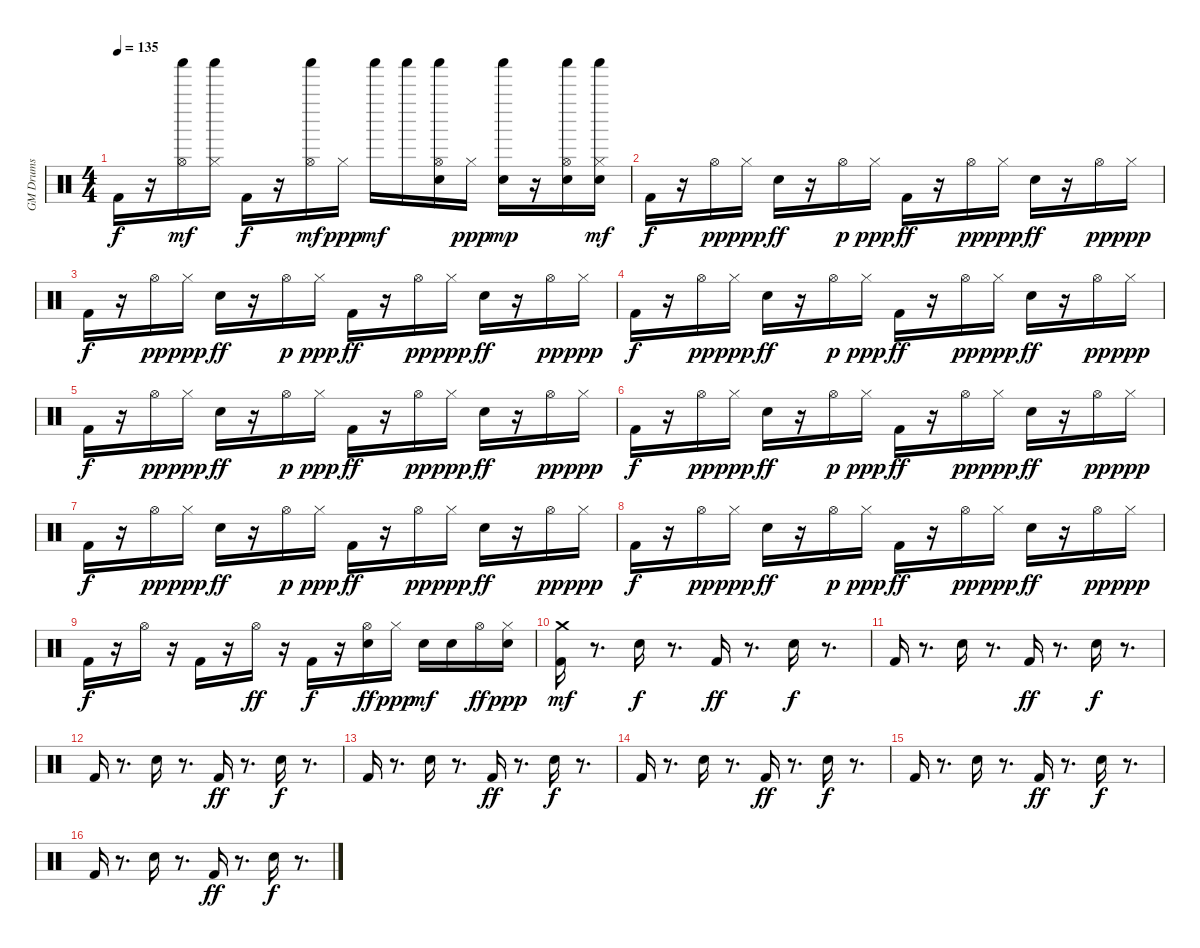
\track ("GM Drums" "GM Drums") {instrument percussion}
\staff {score}
\articulation defaults
\ts (4 4)
\tempo 135
\clef neutral
\ks c "Kick (hit) 2".16{dy f}
r.16 ("Hi-Hat (open)" "Shaker (hit)").16{dy mf} ("Hi-Hat (closed)" "Shaker (hit)").16 "Kick (hit) 2".16{dy f} r.16 ("Hi-Hat (open)" "Shaker (hit)").16{dy mf} "Hi-Hat (closed)".16{dy ppp} "Shaker (hit)".16{dy mf} "Shaker (hit)".16 ("Electric Snare (hit)" "Hi-Hat (open)" "Shaker (hit)").16 "Hi-Hat (closed)".16{dy ppp} ("Electric Snare (hit)" "Shaker (hit)").16{dy mp} r.16 ("Electric Snare (hit)" "Hi-Hat (open)" "Shaker (hit)").16 ("Electric Snare (hit)" "Hi-Hat (closed)" "Shaker (hit)").16{dy mf} |
"Kick (hit) 2".16{dy f} r.16 "Hi-Hat (open)".16{dy pp} "Hi-Hat (closed)".16{dy ppp} "Snare (hit) 2".16{dy ff} r.16 "Hi-Hat (open)".16{dy p} "Hi-Hat (closed)".16{dy ppp} "Kick (hit) 2".16{dy ff} r.16 "Hi-Hat (open)".16{dy pp} "Hi-Hat (closed)".16{dy ppp} "Snare (hit) 2".16{dy ff} r.16 "Hi-Hat (open)".16{dy pp} "Hi-Hat (closed)".16{dy ppp} |
"Kick (hit) 2".16{dy f} r.16 "Hi-Hat (open)".16{dy pp} "Hi-Hat (closed)".16{dy ppp} "Snare (hit) 2".16{dy ff} r.16 "Hi-Hat (open)".16{dy p} "Hi-Hat (closed)".16{dy ppp} "Kick (hit) 2".16{dy ff} r.16 "Hi-Hat (open)".16{dy pp} "Hi-Hat (closed)".16{dy ppp} "Snare (hit) 2".16{dy ff} r.16 "Hi-Hat (open)".16{dy pp} "Hi-Hat (closed)".16{dy ppp} |
"Kick (hit) 2".16{dy f} r.16 "Hi-Hat (open)".16{dy pp} "Hi-Hat (closed)".16{dy ppp} "Snare (hit) 2".16{dy ff} r.16 "Hi-Hat (open)".16{dy p} "Hi-Hat (closed)".16{dy ppp} "Kick (hit) 2".16{dy ff} r.16 "Hi-Hat (open)".16{dy pp} "Hi-Hat (closed)".16{dy ppp} "Snare (hit) 2".16{dy ff} r.16 "Hi-Hat (open)".16{dy pp} "Hi-Hat (closed)".16{dy ppp} |
"Kick (hit) 2".16{dy f} r.16 "Hi-Hat (open)".16{dy pp} "Hi-Hat (closed)".16{dy ppp} "Snare (hit) 2".16{dy ff} r.16 "Hi-Hat (open)".16{dy p} "Hi-Hat (closed)".16{dy ppp} "Kick (hit) 2".16{dy ff} r.16 "Hi-Hat (open)".16{dy pp} "Hi-Hat (closed)".16{dy ppp} "Snare (hit) 2".16{dy ff} r.16 "Hi-Hat (open)".16{dy pp} "Hi-Hat (closed)".16{dy ppp} |
"Kick (hit) 2".16{dy f} r.16 "Hi-Hat (open)".16{dy pp} "Hi-Hat (closed)".16{dy ppp} "Snare (hit) 2".16{dy ff} r.16 "Hi-Hat (open)".16{dy p} "Hi-Hat (closed)".16{dy ppp} "Kick (hit) 2".16{dy ff} r.16 "Hi-Hat (open)".16{dy pp} "Hi-Hat (closed)".16{dy ppp} "Snare (hit) 2".16{dy ff} r.16 "Hi-Hat (open)".16{dy pp} "Hi-Hat (closed)".16{dy ppp} |
"Kick (hit) 2".16{dy f} r.16 "Hi-Hat (open)".16{dy pp} "Hi-Hat (closed)".16{dy ppp} "Snare (hit) 2".16{dy ff} r.16 "Hi-Hat (open)".16{dy p} "Hi-Hat (closed)".16{dy ppp} "Kick (hit) 2".16{dy ff} r.16 "Hi-Hat (open)".16{dy pp} "Hi-Hat (closed)".16{dy ppp} "Snare (hit) 2".16{dy ff} r.16 "Hi-Hat (open)".16{dy pp} "Hi-Hat (closed)".16{dy ppp} |
"Kick (hit) 2".16{dy f} r.16 "Hi-Hat (open)".16{dy pp} "Hi-Hat (closed)".16{dy ppp} "Snare (hit) 2".16{dy ff} r.16 "Hi-Hat (open)".16{dy p} "Hi-Hat (closed)".16{dy ppp} "Kick (hit) 2".16{dy ff} r.16 "Hi-Hat (open)".16{dy pp} "Hi-Hat (closed)".16{dy ppp} "Snare (hit) 2".16{dy ff} r.16 "Hi-Hat (open)".16{dy pp} "Hi-Hat (closed)".16{dy ppp} |
"Kick (hit) 2".16{dy f} r.16 "Hi-Hat (open)".16 r.16 "Kick (hit) 2".16 r.16 "Hi-Hat (open)".16{dy ff} r.16 "Kick (hit) 2".16{dy f} r.16 ("Electric Snare (hit)" "Hi-Hat (open)").16{dy ff} "Hi-Hat (closed)".16{dy ppp} "Electric Snare (hit)".16{dy mf} "Electric Snare (hit)".16 "Hi-Hat (open)".16{dy ff} ("Electric Snare (hit)" "Hi-Hat (closed)").16{dy ppp} |
("Kick (hit) 2" "Crash medium (hit)").16{dy mf} r.8{d} "Snare (hit) 2".16{dy f} r.8{d} "Kick (hit) 2".16{dy ff} r.8{d} "Snare (hit) 2".16{dy f} r.8{d} |
"Kick (hit) 2".16 r.8{d} "Snare (hit) 2".16 r.8{d} "Kick (hit) 2".16{dy ff} r.8{d} "Snare (hit) 2".16{dy f} r.8{d} |
"Kick (hit) 2".16 r.8{d} "Snare (hit) 2".16 r.8{d} "Kick (hit) 2".16{dy ff} r.8{d} "Snare (hit) 2".16{dy f} r.8{d} |
"Kick (hit) 2".16 r.8{d} "Snare (hit) 2".16 r.8{d} "Kick (hit) 2".16{dy ff} r.8{d} "Snare (hit) 2".16{dy f} r.8{d} |
"Kick (hit) 2".16 r.8{d} "Snare (hit) 2".16 r.8{d} "Kick (hit) 2".16{dy ff} r.8{d} "Snare (hit) 2".16{dy f} r.8{d} |
"Kick (hit) 2".16 r.8{d} "Snare (hit) 2".16 r.8{d} "Kick (hit) 2".16{dy ff} r.8{d} "Snare (hit) 2".16{dy f} r.8{d} |
"Kick (hit) 2".16 r.8{d} "Snare (hit) 2".16 r.8{d} "Kick (hit) 2".16{dy ff} r.8{d} "Snare (hit) 2".16{dy f} r.8{d}
